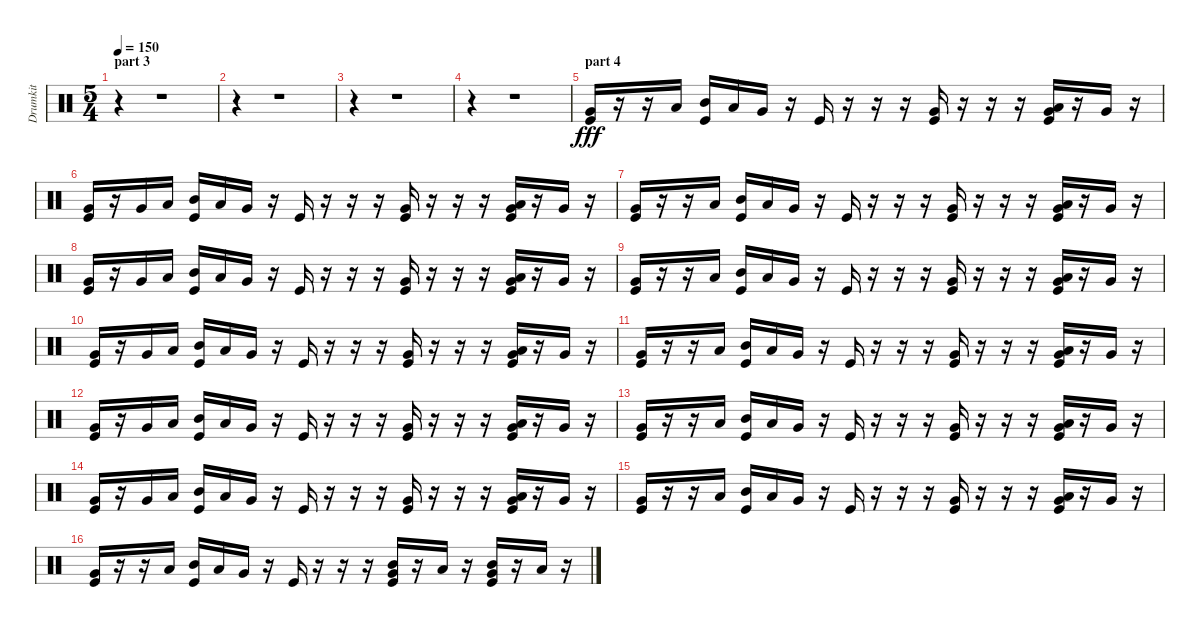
\track ("Drumkit" "Drumkit") {instrument percussion}
\staff {score}
\articulation defaults
\ts (5 4)
\section ("" "part 3")
\tempo 150
\clef neutral
\ks c
r.4{dy fff} r.1 |
r.4 r.1 |
r.4 r.1 |
r.4 r.1 |
\section ("" "part 4")
("Kick (hit)" "Very Low Tom (hit)").16 r.16 r.16 "Low Tom (hit)".16 ("Kick (hit)" "Mid Tom (hit)").16 "Low Tom (hit)".16 "Very Low Tom (hit)".16 r.16 "Kick (hit)".16 r.16 r.16 r.16 ("Kick (hit)" "Very Low Tom (hit)").16 r.16 r.16 r.16 ("Kick (hit)" "Very Low Tom (hit)" "Low Tom (hit)").16 r.16 "Very Low Tom (hit)".16 r.16 |
("Kick (hit)" "Very Low Tom (hit)").16 r.16 "Very Low Tom (hit)".16 "Low Tom (hit)".16 ("Kick (hit)" "Mid Tom (hit)").16 "Low Tom (hit)".16 "Very Low Tom (hit)".16 r.16 "Kick (hit)".16 r.16 r.16 r.16 ("Kick (hit)" "Very Low Tom (hit)").16 r.16 r.16 r.16 ("Kick (hit)" "Very Low Tom (hit)" "Low Tom (hit)").16 r.16 "Very Low Tom (hit)".16 r.16 |
("Kick (hit)" "Very Low Tom (hit)").16 r.16 r.16 "Low Tom (hit)".16 ("Kick (hit)" "Mid Tom (hit)").16 "Low Tom (hit)".16 "Very Low Tom (hit)".16 r.16 "Kick (hit)".16 r.16 r.16 r.16 ("Kick (hit)" "Very Low Tom (hit)").16 r.16 r.16 r.16 ("Kick (hit)" "Very Low Tom (hit)" "Low Tom (hit)").16 r.16 "Very Low Tom (hit)".16 r.16 |
("Kick (hit)" "Very Low Tom (hit)").16 r.16 "Very Low Tom (hit)".16 "Low Tom (hit)".16 ("Kick (hit)" "Mid Tom (hit)").16 "Low Tom (hit)".16 "Very Low Tom (hit)".16 r.16 "Kick (hit)".16 r.16 r.16 r.16 ("Kick (hit)" "Very Low Tom (hit)").16 r.16 r.16 r.16 ("Kick (hit)" "Very Low Tom (hit)" "Low Tom (hit)").16 r.16 "Very Low Tom (hit)".16 r.16 |
("Kick (hit)" "Very Low Tom (hit)").16 r.16 r.16 "Low Tom (hit)".16 ("Kick (hit)" "Mid Tom (hit)").16 "Low Tom (hit)".16 "Very Low Tom (hit)".16 r.16 "Kick (hit)".16 r.16 r.16 r.16 ("Kick (hit)" "Very Low Tom (hit)").16 r.16 r.16 r.16 ("Kick (hit)" "Very Low Tom (hit)" "Low Tom (hit)").16 r.16 "Very Low Tom (hit)".16 r.16 |
("Kick (hit)" "Very Low Tom (hit)").16 r.16 "Very Low Tom (hit)".16 "Low Tom (hit)".16 ("Kick (hit)" "Mid Tom (hit)").16 "Low Tom (hit)".16 "Very Low Tom (hit)".16 r.16 "Kick (hit)".16 r.16 r.16 r.16 ("Kick (hit)" "Very Low Tom (hit)").16 r.16 r.16 r.16 ("Kick (hit)" "Very Low Tom (hit)" "Low Tom (hit)").16 r.16 "Very Low Tom (hit)".16 r.16 |
("Kick (hit)" "Very Low Tom (hit)").16 r.16 r.16 "Low Tom (hit)".16 ("Kick (hit)" "Mid Tom (hit)").16 "Low Tom (hit)".16 "Very Low Tom (hit)".16 r.16 "Kick (hit)".16 r.16 r.16 r.16 ("Kick (hit)" "Very Low Tom (hit)").16 r.16 r.16 r.16 ("Kick (hit)" "Very Low Tom (hit)" "Low Tom (hit)").16 r.16 "Very Low Tom (hit)".16 r.16 |
("Kick (hit)" "Very Low Tom (hit)").16 r.16 "Very Low Tom (hit)".16 "Low Tom (hit)".16 ("Kick (hit)" "Mid Tom (hit)").16 "Low Tom (hit)".16 "Very Low Tom (hit)".16 r.16 "Kick (hit)".16 r.16 r.16 r.16 ("Kick (hit)" "Very Low Tom (hit)").16 r.16 r.16 r.16 ("Kick (hit)" "Very Low Tom (hit)" "Low Tom (hit)").16 r.16 "Very Low Tom (hit)".16 r.16 |
("Kick (hit)" "Very Low Tom (hit)").16 r.16 r.16 "Low Tom (hit)".16 ("Kick (hit)" "Mid Tom (hit)").16 "Low Tom (hit)".16 "Very Low Tom (hit)".16 r.16 "Kick (hit)".16 r.16 r.16 r.16 ("Kick (hit)" "Very Low Tom (hit)").16 r.16 r.16 r.16 ("Kick (hit)" "Very Low Tom (hit)" "Low Tom (hit)").16 r.16 "Very Low Tom (hit)".16 r.16 |
("Kick (hit)" "Very Low Tom (hit)").16 r.16 "Very Low Tom (hit)".16 "Low Tom (hit)".16 ("Kick (hit)" "Mid Tom (hit)").16 "Low Tom (hit)".16 "Very Low Tom (hit)".16 r.16 "Kick (hit)".16 r.16 r.16 r.16 ("Kick (hit)" "Very Low Tom (hit)").16 r.16 r.16 r.16 ("Kick (hit)" "Very Low Tom (hit)" "Low Tom (hit)").16 r.16 "Very Low Tom (hit)".16 r.16 |
("Kick (hit)" "Very Low Tom (hit)").16 r.16 r.16 "Low Tom (hit)".16 ("Kick (hit)" "Mid Tom (hit)").16 "Low Tom (hit)".16 "Very Low Tom (hit)".16 r.16 "Kick (hit)".16 r.16 r.16 r.16 ("Kick (hit)" "Very Low Tom (hit)").16 r.16 r.16 r.16 ("Kick (hit)" "Very Low Tom (hit)" "Low Tom (hit)").16 r.16 "Very Low Tom (hit)".16 r.16 |
("Kick (hit)" "Very Low Tom (hit)").16 r.16 r.16 "Low Tom (hit)".16 ("Kick (hit)" "Mid Tom (hit)").16 "Low Tom (hit)".16 "Very Low Tom (hit)".16 r.16 "Kick (hit)".16 r.16 r.16 r.16 ("Kick (hit)" "Mid Tom (hit)" "Very Low Tom (hit)").16 r.16 "Low Tom (hit)".16 r.16 ("Kick (hit)" "Mid Tom (hit)" "Very Low Tom (hit)").16 r.16 "Low Tom (hit)".16 r.16
